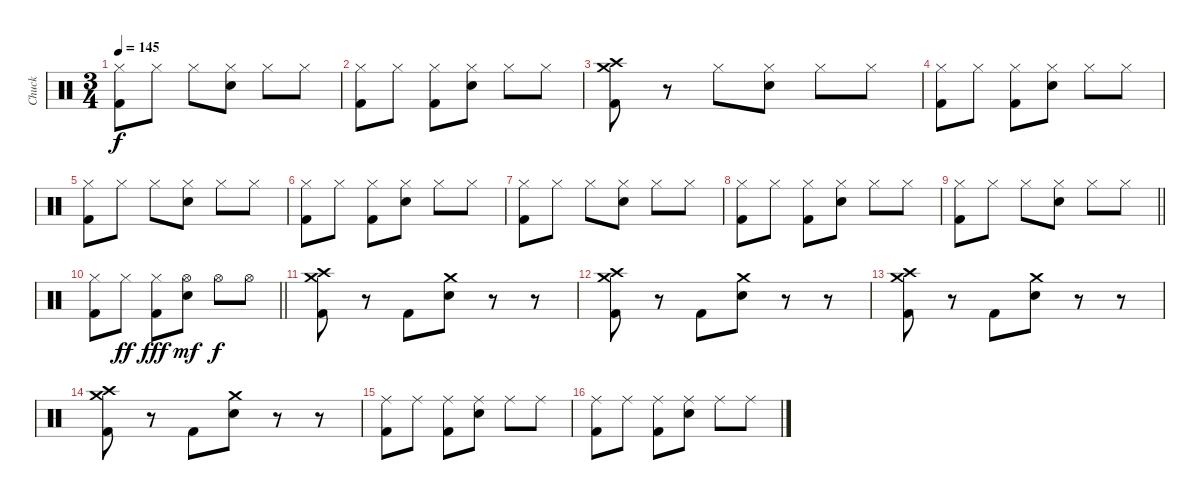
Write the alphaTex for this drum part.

\track ("Chuck" "Chuck") {instrument percussion}
\staff {score}
\articulation defaults
\ts (3 4)
\tempo 145
\clef neutral
\ks c
("Hi-Hat (closed)" "Kick (hit) 2").8{dy f} "Hi-Hat (closed)".8 "Hi-Hat (closed)".8 ("Hi-Hat (closed)" "Electric Snare (hit)").8 "Hi-Hat (closed)".8 "Hi-Hat (closed)".8 |
("Hi-Hat (closed)" "Kick (hit) 2").8 "Hi-Hat (closed)".8 ("Hi-Hat (closed)" "Kick (hit) 2").8 ("Hi-Hat (closed)" "Electric Snare (hit)").8 "Hi-Hat (closed)".8 "Hi-Hat (closed)".8 |
("Crash medium (hit)" "Crash high (hit)" "Kick (hit) 2").8 r.8 "Hi-Hat (closed)".8 ("Hi-Hat (closed)" "Electric Snare (hit)").8 "Hi-Hat (closed)".8 "Hi-Hat (closed)".8 |
("Hi-Hat (closed)" "Kick (hit) 2").8 "Hi-Hat (closed)".8 ("Hi-Hat (closed)" "Kick (hit) 2").8 ("Hi-Hat (closed)" "Electric Snare (hit)").8 "Hi-Hat (closed)".8 "Hi-Hat (closed)".8 |
("Hi-Hat (closed)" "Kick (hit) 2").8 "Hi-Hat (closed)".8 "Hi-Hat (closed)".8 ("Hi-Hat (closed)" "Electric Snare (hit)").8 "Hi-Hat (closed)".8 "Hi-Hat (closed)".8 |
("Hi-Hat (closed)" "Kick (hit) 2").8 "Hi-Hat (closed)".8 ("Hi-Hat (closed)" "Kick (hit) 2").8 ("Hi-Hat (closed)" "Electric Snare (hit)").8 "Hi-Hat (closed)".8 "Hi-Hat (closed)".8 |
("Hi-Hat (closed)" "Kick (hit) 2").8 "Hi-Hat (closed)".8 "Hi-Hat (closed)".8 ("Hi-Hat (closed)" "Electric Snare (hit)").8 "Hi-Hat (closed)".8 "Hi-Hat (closed)".8 |
("Hi-Hat (closed)" "Kick (hit) 2").8 "Hi-Hat (closed)".8 ("Hi-Hat (closed)" "Kick (hit) 2").8 ("Hi-Hat (closed)" "Electric Snare (hit)").8 "Hi-Hat (closed)".8 "Hi-Hat (closed)".8 |
\barLineRight lightlight
("Hi-Hat (closed)" "Kick (hit) 2").8 "Hi-Hat (closed)".8 "Hi-Hat (closed)".8 ("Hi-Hat (closed)" "Electric Snare (hit)").8 "Hi-Hat (closed)".8 "Hi-Hat (closed)".8 |
\barLineRight lightlight
("Hi-Hat (closed)" "Kick (hit) 2").8 "Hi-Hat (closed)".8{dy ff} ("Hi-Hat (closed)" "Kick (hit) 2").8{dy fff} ("Hi-Hat (open)" "Electric Snare (hit)").8{dy mf} "Hi-Hat (open)".8{dy f} "Hi-Hat (open)".8 |
("Crash medium (hit)" "Crash high (hit)" "Kick (hit) 2").8 r.8 "Kick (hit) 2".8 ("Crash medium (hit)" "Electric Snare (hit)").8 r.8 r.8 |
("Crash medium (hit)" "Crash high (hit)" "Kick (hit) 2").8 r.8 "Kick (hit) 2".8 ("Crash medium (hit)" "Electric Snare (hit)").8 r.8 r.8 |
("Crash medium (hit)" "Crash high (hit)" "Kick (hit) 2").8 r.8 "Kick (hit) 2".8 ("Crash medium (hit)" "Electric Snare (hit)").8 r.8 r.8 |
("Crash medium (hit)" "Crash high (hit)" "Kick (hit) 2").8 r.8 "Kick (hit) 2".8 ("Crash medium (hit)" "Electric Snare (hit)").8 r.8 r.8 |
("Ride (middle)" "Kick (hit) 2").8 "Ride (middle)".8 ("Ride (middle)" "Kick (hit) 2").8 ("Ride (middle)" "Electric Snare (hit)").8 "Ride (middle)".8 "Ride (middle)".8 |
("Ride (middle)" "Kick (hit) 2").8 "Ride (middle)".8 ("Ride (middle)" "Kick (hit) 2").8 ("Ride (middle)" "Electric Snare (hit)").8 "Ride (middle)".8 "Ride (middle)".8
